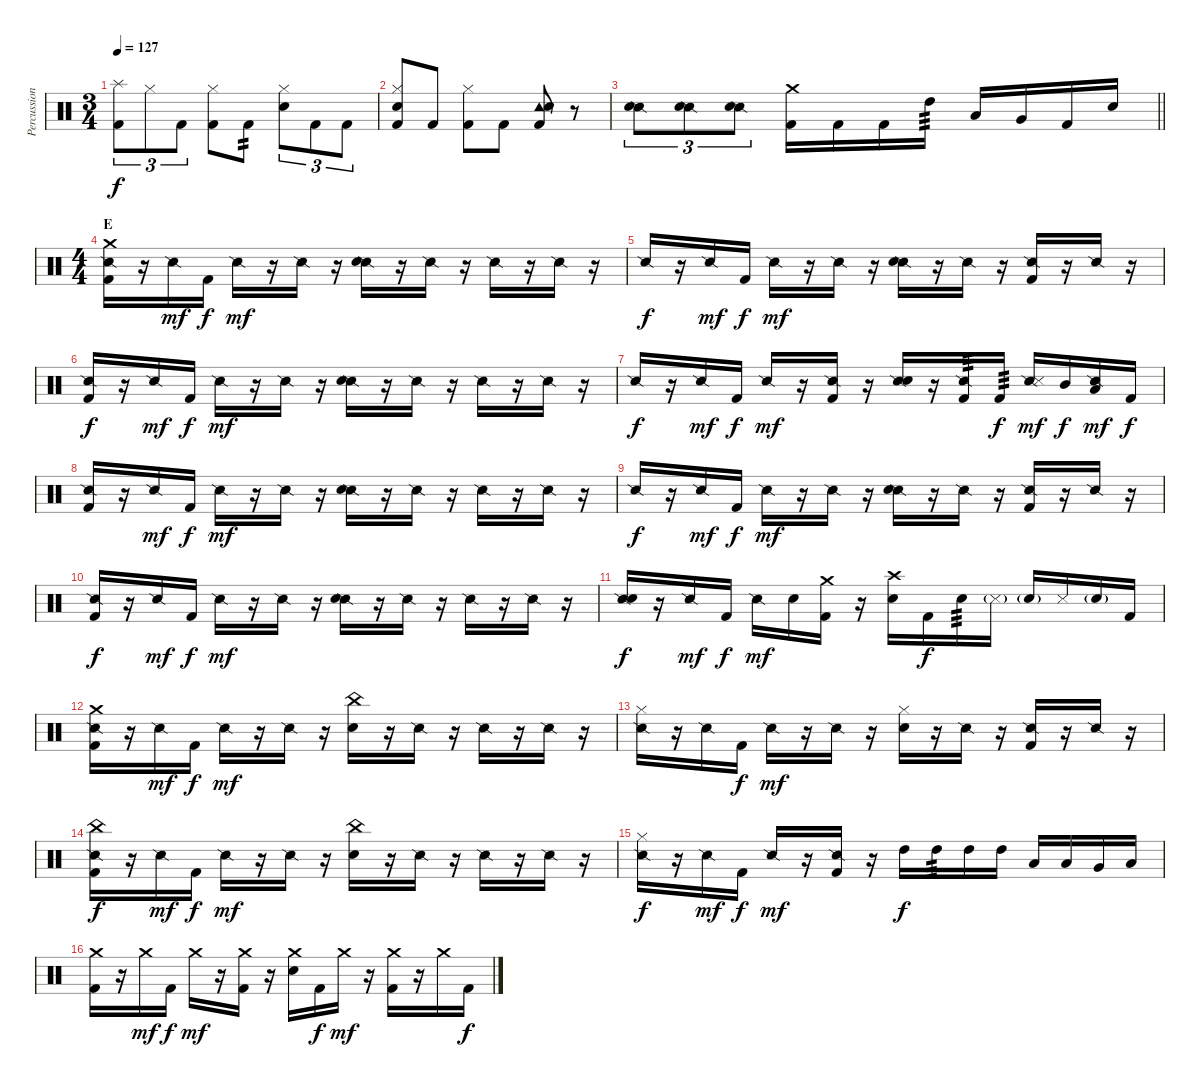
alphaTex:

\track ("Percussion" "Percussion") {instrument percussion}
\staff {score}
\articulation defaults
\ts (3 4)
\tempo 127
\clef neutral
\ks c
("Splash (hit)" "Kick (hit) 2").8{tu (3 2) dy f} "Hi-Hat (closed)".8{tu (3 2)} "Kick (hit) 2".8{tu (3 2)} ("Hi-Hat (closed)" "Kick (hit) 2").8 "Kick (hit) 2".8{tp 2} ("Hi-Hat (closed)" "Snare (hit) 2").8{tu (3 2)} "Kick (hit) 2".8{tu (3 2)} "Kick (hit) 2".8{tu (3 2)} |
("Hi-Hat (closed)" "Snare (hit) 2" "Kick (hit) 2").8 "Kick (hit) 2".8 ("Hi-Hat (closed)" "Kick (hit) 2").8 "Kick (hit) 2".8 ("Tambourine (hit)" "Snare (hit) 2" "Kick (hit) 2").8 r.8 |
\barLineRight lightlight
("Snare (side stick) 2" "Snare (hit) 2").8{tu (3 2)} ("Snare (side stick) 2" "Snare (hit) 2").8{tu (3 2)} ("Snare (side stick) 2" "Snare (hit) 2").8{tu (3 2)} ("Crash medium (hit)" "Kick (hit) 2").16 "Kick (hit) 2".16 "Kick (hit) 2".16 "High Tom (hit)".16{tp 3} "Low Tom (hit)".16 "Very Low Tom (hit)".16 "Kick (hit) 2".16 "Snare (hit) 2".16 |
\ts (4 4)
\section ("" "E")
("Snare (side stick) 2" "Crash medium (hit)" "Kick (hit) 2").16 r.16 "Snare (side stick) 2".16{dy mf} "Kick (hit) 2".16{dy f} "Snare (side stick) 2".16{dy mf} r.16 "Snare (side stick) 2".16 r.16 ("Snare (side stick) 2" "Snare (hit) 2").16 r.16 "Snare (side stick) 2".16 r.16 "Snare (side stick) 2".16 r.16 "Snare (side stick) 2".16 r.16 |
"Snare (side stick) 2".16{dy f} r.16 "Snare (side stick) 2".16{dy mf} "Kick (hit) 2".16{dy f} "Snare (side stick) 2".16{dy mf} r.16 "Snare (side stick) 2".16 r.16 ("Snare (side stick) 2" "Snare (hit) 2").16 r.16 "Snare (side stick) 2".16 r.16 ("Snare (side stick) 2" "Kick (hit) 2").16 r.16 "Snare (side stick) 2".16 r.16 |
("Snare (side stick) 2" "Kick (hit) 2").16{dy f} r.16 "Snare (side stick) 2".16{dy mf} "Kick (hit) 2".16{dy f} "Snare (side stick) 2".16{dy mf} r.16 "Snare (side stick) 2".16 r.16 ("Snare (side stick) 2" "Snare (hit) 2").16 r.16 "Snare (side stick) 2".16 r.16 "Snare (side stick) 2".16 r.16 "Snare (side stick) 2".16 r.16 |
"Snare (side stick) 2".16{dy f} r.16 "Snare (side stick) 2".16{dy mf} "Kick (hit) 2".16{dy f} "Snare (side stick) 2".16{dy mf} r.16 ("Snare (side stick) 2" "Kick (hit) 2").16 r.16 ("Snare (side stick) 2" "Snare (hit) 2").16 r.16 ("Snare (side stick) 2" "Kick (hit) 2").16{tp 3} "Kick (hit) 2".16{tp 3 dy f} ("Snare (side stick) 2" "Metronome (hit)").16{dy mf} "Mid Tom (hit)".16{dy f} ("Snare (side stick) 2" "Low Tom (hit)").16{dy mf} "Kick (hit) 2".16{dy f} |
("Snare (side stick) 2" "Kick (hit) 2").16 r.16 "Snare (side stick) 2".16{dy mf} "Kick (hit) 2".16{dy f} "Snare (side stick) 2".16{dy mf} r.16 "Snare (side stick) 2".16 r.16 ("Snare (side stick) 2" "Snare (hit) 2").16 r.16 "Snare (side stick) 2".16 r.16 "Snare (side stick) 2".16 r.16 "Snare (side stick) 2".16 r.16 |
"Snare (side stick) 2".16{dy f} r.16 "Snare (side stick) 2".16{dy mf} "Kick (hit) 2".16{dy f} "Snare (side stick) 2".16{dy mf} r.16 "Snare (side stick) 2".16 r.16 ("Snare (side stick) 2" "Snare (hit) 2").16 r.16 "Snare (side stick) 2".16 r.16 ("Snare (side stick) 2" "Kick (hit) 2").16 r.16 "Snare (side stick) 2".16 r.16 |
("Snare (side stick) 2" "Kick (hit) 2").16{dy f} r.16 "Snare (side stick) 2".16{dy mf} "Kick (hit) 2".16{dy f} "Snare (side stick) 2".16{dy mf} r.16 "Snare (side stick) 2".16 r.16 ("Snare (side stick) 2" "Snare (hit) 2").16 r.16 "Snare (side stick) 2".16 r.16 "Snare (side stick) 2".16 r.16 "Snare (side stick) 2".16 r.16 |
("Snare (side stick) 2" "Snare (hit) 2").16{dy f} r.16 "Snare (side stick) 2".16{dy mf} "Kick (hit) 2".16{dy f} "Snare (side stick) 2".16{dy mf} "Snare (hit) 2".16 ("Crash medium (hit)" "Kick (hit) 2").16 r.16 ("Crash high (hit)" "Snare (hit) 2").16 "Kick (hit) 2".16{dy f} "Snare (hit) 2".16{tp 3} "Metronome (hit)"{g}.16 "Snare (hit) 2"{g}.16 "Metronome (hit)".16 "Snare (hit) 2"{g}.16 "Kick (hit) 2".16 |
("Snare (side stick) 2" "Crash medium (hit)" "Kick (hit) 2").16 r.16 "Snare (side stick) 2".16{dy mf} "Kick (hit) 2".16{dy f} "Snare (side stick) 2".16{dy mf} r.16 "Snare (side stick) 2".16 r.16 ("China (hit)" "Snare (hit) 2").16 r.16 "Snare (side stick) 2".16 r.16 "Snare (side stick) 2".16 r.16 "Snare (side stick) 2".16 r.16 |
("Snare (side stick) 2" "Hi-Hat (closed)").16 r.16 "Snare (side stick) 2".16 "Kick (hit) 2".16{dy f} "Snare (side stick) 2".16{dy mf} r.16 "Snare (side stick) 2".16 r.16 ("Hi-Hat (closed)" "Snare (hit) 2").16 r.16 "Snare (side stick) 2".16 r.16 ("Snare (side stick) 2" "Kick (hit) 2").16 r.16 "Snare (side stick) 2".16 r.16 |
("Snare (side stick) 2" "China (hit)" "Kick (hit) 2").16{dy f} r.16 "Snare (side stick) 2".16{dy mf} "Kick (hit) 2".16{dy f} "Snare (side stick) 2".16{dy mf} r.16 "Snare (side stick) 2".16 r.16 ("China (hit)" "Snare (hit) 2").16 r.16 "Snare (side stick) 2".16 r.16 "Snare (side stick) 2".16 r.16 "Snare (side stick) 2".16 r.16 |
("Snare (side stick) 2" "Hi-Hat (closed)").16{dy f} r.16 "Snare (side stick) 2".16{dy mf} "Kick (hit) 2".16{dy f} "Snare (side stick) 2".16{dy mf} r.16 ("Snare (side stick) 2" "Kick (hit) 2").16 r.16 "High Tom (hit)".16{dy f} "High Tom (hit)".16{tp 3} "High Tom (hit)".16 "High Tom (hit)".16 "Low Tom (hit)".16 "Low Tom (hit)".16 "Very Low Tom (hit)".16 "Low Floor Tom (hit)".16 |
("Crash medium (hit)" "Kick (hit) 2").16 r.16 "Crash medium (hit)".16{dy mf} "Kick (hit) 2".16{dy f} "Crash medium (hit)".16{dy mf} r.16 ("Crash medium (hit)" "Kick (hit) 2").16 r.16 ("Crash medium (hit)" "Snare (hit) 2").16 "Kick (hit) 2".16{dy f} "Crash medium (hit)".16{dy mf} r.16 ("Crash medium (hit)" "Kick (hit) 2").16 r.16 "Crash medium (hit)".16 "Kick (hit) 2".16{dy f}
